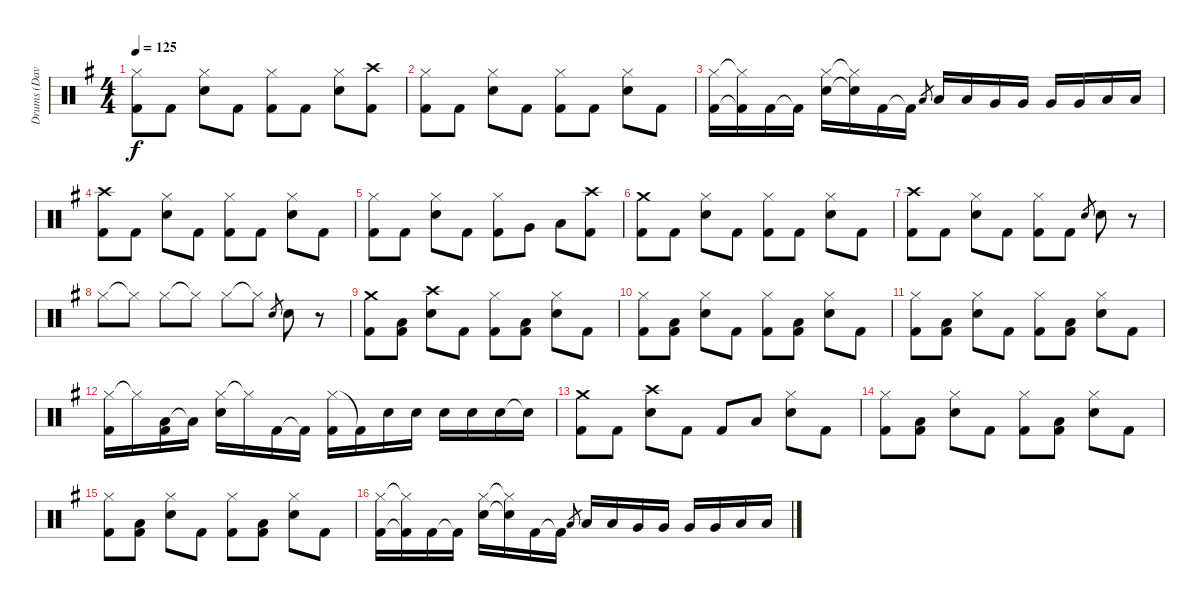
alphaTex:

\track ("Drums (Dave Holland)" "Drums (Dav") {instrument percussion}
\staff {score}
\articulation defaults
\ts (4 4)
\tempo 125
\clef neutral
\ks g
("Hi-Hat (closed)" "Kick (hit) 2").8{dy f} "Kick (hit) 2".8 ("Hi-Hat (closed)" "Snare (hit) 2").8 "Kick (hit) 2".8 ("Hi-Hat (closed)" "Kick (hit) 2").8 "Kick (hit) 2".8 ("Hi-Hat (closed)" "Snare (hit) 2").8 ("Crash high (hit)" "Kick (hit) 2").8 |
("Hi-Hat (closed)" "Kick (hit) 2").8 "Kick (hit) 2".8 ("Hi-Hat (closed)" "Snare (hit) 2").8 "Kick (hit) 2".8 ("Hi-Hat (closed)" "Kick (hit) 2").8 "Kick (hit) 2".8 ("Hi-Hat (closed)" "Snare (hit) 2").8 "Kick (hit) 2".8 |
("Hi-Hat (closed)" "Kick (hit) 2").16 ("Hi-Hat (closed)"{t} "Kick (hit) 2"{t}).16 "Kick (hit) 2".16 "Kick (hit) 2"{t}.16 ("Hi-Hat (closed)" "Snare (hit) 2").16 ("Hi-Hat (closed)"{t} "Snare (hit) 2"{t}).16 "Kick (hit) 2".16 "Kick (hit) 2"{t}.16 "Low Tom (hit)".8{gr} "Low Tom (hit)".16 "Low Tom (hit)".16 "Very Low Tom (hit)".16 "Very Low Tom (hit)".16 "Very Low Tom (hit)".16 "Very Low Tom (hit)".16 "Low Floor Tom (hit)".16 "Low Floor Tom (hit)".16 |
("Crash high (hit)" "Kick (hit) 2").8 "Kick (hit) 2".8 ("Hi-Hat (closed)" "Snare (hit) 2").8 "Kick (hit) 2".8 ("Hi-Hat (closed)" "Kick (hit) 2").8 "Kick (hit) 2".8 ("Hi-Hat (closed)" "Snare (hit) 2").8 "Kick (hit) 2".8 |
("Hi-Hat (closed)" "Kick (hit) 2").8 "Kick (hit) 2".8 ("Hi-Hat (closed)" "Snare (hit) 2").8 "Kick (hit) 2".8 ("Hi-Hat (closed)" "Kick (hit) 2").8 "Very Low Tom (hit)".8 "Low Floor Tom (hit)".8 ("Crash high (hit)" "Kick (hit) 2").8 |
("Crash medium (hit)" "Kick (hit) 2").8 "Kick (hit) 2".8 ("Hi-Hat (closed)" "Snare (hit) 2").8 "Kick (hit) 2".8 ("Hi-Hat (closed)" "Kick (hit) 2").8 "Kick (hit) 2".8 ("Hi-Hat (closed)" "Snare (hit) 2").8 "Kick (hit) 2".8 |
("Crash high (hit)" "Kick (hit) 2").8 "Kick (hit) 2".8 ("Hi-Hat (closed)" "Snare (hit) 2").8 "Kick (hit) 2".8 ("Hi-Hat (closed)" "Kick (hit) 2").8 "Kick (hit) 2".8 "Snare (hit) 2".8{gr} "Snare (hit) 2".8 r.8 |
"Hi-Hat (closed)".8 "Hi-Hat (closed)"{t}.8 "Hi-Hat (closed)".8 "Hi-Hat (closed)"{t}.8 "Hi-Hat (closed)".8 "Hi-Hat (closed)"{t}.8 "Snare (hit) 2".8{gr} "Snare (hit) 2".8 r.8 |
("Crash medium (hit)" "Kick (hit) 2").8 ("Low Tom (hit)" "Kick (hit) 2").8 ("Crash high (hit)" "Snare (hit) 2").8 "Kick (hit) 2".8 ("Hi-Hat (closed)" "Kick (hit) 2").8 ("Low Tom (hit)" "Kick (hit) 2").8 ("Hi-Hat (closed)" "Snare (hit) 2").8 "Kick (hit) 2".8 |
("Hi-Hat (closed)" "Kick (hit) 2").8 ("Low Tom (hit)" "Kick (hit) 2").8 ("Hi-Hat (closed)" "Snare (hit) 2").8 "Kick (hit) 2".8 ("Hi-Hat (closed)" "Kick (hit) 2").8 ("Low Tom (hit)" "Kick (hit) 2").8 ("Hi-Hat (closed)" "Snare (hit) 2").8 "Kick (hit) 2".8 |
("Hi-Hat (closed)" "Kick (hit) 2").8 ("Low Tom (hit)" "Kick (hit) 2").8 ("Hi-Hat (closed)" "Snare (hit) 2").8 "Kick (hit) 2".8 ("Hi-Hat (closed)" "Kick (hit) 2").8 ("Low Tom (hit)" "Kick (hit) 2").8 ("Hi-Hat (closed)" "Snare (hit) 2").8 "Kick (hit) 2".8 |
("Hi-Hat (closed)" "Kick (hit) 2").16 "Hi-Hat (closed)"{t}.16 ("Low Tom (hit)" "Kick (hit) 2").16 "Low Tom (hit)"{t}.16 ("Hi-Hat (closed)" "Snare (hit) 2").16 "Hi-Hat (closed)"{t}.16 "Kick (hit) 2".16 "Kick (hit) 2"{t}.16 ("Hi-Hat (closed)" "Kick (hit) 2").16 "Kick (hit) 2"{t}.16 "Snare (hit) 2".16 "Snare (hit) 2".16 "Snare (hit) 2".16 "Snare (hit) 2".16 "Snare (hit) 2".16 "Snare (hit) 2"{t}.16 |
("Crash medium (hit)" "Kick (hit) 2").8 "Kick (hit) 2".8 ("Crash high (hit)" "Snare (hit) 2").8 "Kick (hit) 2".8 "Kick (hit) 2".8 "Low Tom (hit)".8 ("Hi-Hat (closed)" "Snare (hit) 2").8 "Kick (hit) 2".8 |
("Hi-Hat (closed)" "Kick (hit) 2").8 ("Low Tom (hit)" "Kick (hit) 2").8 ("Hi-Hat (closed)" "Snare (hit) 2").8 "Kick (hit) 2".8 ("Hi-Hat (closed)" "Kick (hit) 2").8 ("Low Tom (hit)" "Kick (hit) 2").8 ("Hi-Hat (closed)" "Snare (hit) 2").8 "Kick (hit) 2".8 |
("Hi-Hat (closed)" "Kick (hit) 2").8 ("Low Tom (hit)" "Kick (hit) 2").8 ("Hi-Hat (closed)" "Snare (hit) 2").8 "Kick (hit) 2".8 ("Hi-Hat (closed)" "Kick (hit) 2").8 ("Low Tom (hit)" "Kick (hit) 2").8 ("Hi-Hat (closed)" "Snare (hit) 2").8 "Kick (hit) 2".8 |
("Hi-Hat (closed)" "Kick (hit) 2").16 ("Hi-Hat (closed)"{t} "Kick (hit) 2"{t}).16 "Kick (hit) 2".16 "Kick (hit) 2"{t}.16 ("Hi-Hat (closed)" "Snare (hit) 2").16 ("Hi-Hat (closed)"{t} "Snare (hit) 2"{t}).16 "Kick (hit) 2".16 "Kick (hit) 2"{t}.16 "Low Tom (hit)".8{gr} "Low Tom (hit)".16 "Low Tom (hit)".16 "Very Low Tom (hit)".16 "Very Low Tom (hit)".16 "Very Low Tom (hit)".16 "Very Low Tom (hit)".16 "Low Floor Tom (hit)".16 "Low Floor Tom (hit)".16
